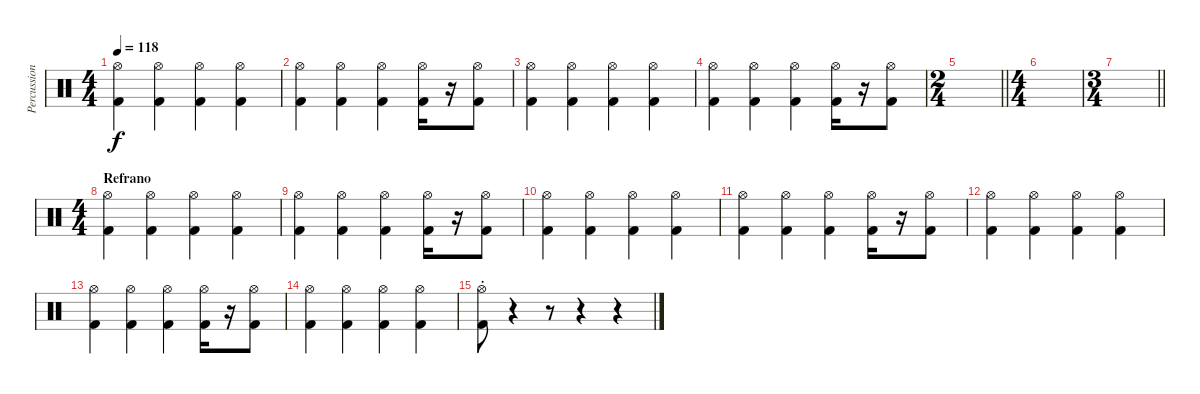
\track ("Percussion" "Percussion") {instrument percussion}
\staff {score}
\articulation defaults
\ts (4 4)
\tempo 118
\clef neutral
\ks c
("Hi-Hat (open)" "Kick (hit) 2").4{dy f} ("Hi-Hat (open)" "Kick (hit) 2").4 ("Hi-Hat (open)" "Kick (hit) 2").4 ("Hi-Hat (open)" "Kick (hit) 2").4 |
("Hi-Hat (open)" "Kick (hit) 2").4 ("Hi-Hat (open)" "Kick (hit) 2").4 ("Hi-Hat (open)" "Kick (hit) 2").4 ("Hi-Hat (open)" "Kick (hit) 2").16 r.16 ("Hi-Hat (open)" "Kick (hit) 2").8 |
("Hi-Hat (open)" "Kick (hit) 2").4 ("Hi-Hat (open)" "Kick (hit) 2").4 ("Hi-Hat (open)" "Kick (hit) 2").4 ("Hi-Hat (open)" "Kick (hit) 2").4 |
("Hi-Hat (open)" "Kick (hit) 2").4 ("Hi-Hat (open)" "Kick (hit) 2").4 ("Hi-Hat (open)" "Kick (hit) 2").4 ("Hi-Hat (open)" "Kick (hit) 2").16 r.16 ("Hi-Hat (open)" "Kick (hit) 2").8 |
\ts (2 4)
\barLineRight lightlight
|
\ts (4 4)
|
\ts (3 4)
\barLineRight lightlight
|
\ts (4 4)
\section ("" "Refrano")
("Hi-Hat (open)" "Kick (hit) 2").4 ("Hi-Hat (open)" "Kick (hit) 2").4 ("Hi-Hat (open)" "Kick (hit) 2").4 ("Hi-Hat (open)" "Kick (hit) 2").4 |
("Hi-Hat (open)" "Kick (hit) 2").4 ("Hi-Hat (open)" "Kick (hit) 2").4 ("Hi-Hat (open)" "Kick (hit) 2").4 ("Hi-Hat (open)" "Kick (hit) 2").16 r.16 ("Hi-Hat (open)" "Kick (hit) 2").8 |
("Hi-Hat (open)" "Kick (hit) 2").4 ("Hi-Hat (open)" "Kick (hit) 2").4 ("Hi-Hat (open)" "Kick (hit) 2").4 ("Hi-Hat (open)" "Kick (hit) 2").4 |
("Hi-Hat (open)" "Kick (hit) 2").4 ("Hi-Hat (open)" "Kick (hit) 2").4 ("Hi-Hat (open)" "Kick (hit) 2").4 ("Hi-Hat (open)" "Kick (hit) 2").16 r.16 ("Hi-Hat (open)" "Kick (hit) 2").8 |
("Hi-Hat (open)" "Kick (hit) 2").4 ("Hi-Hat (open)" "Kick (hit) 2").4 ("Hi-Hat (open)" "Kick (hit) 2").4 ("Hi-Hat (open)" "Kick (hit) 2").4 |
("Hi-Hat (open)" "Kick (hit) 2").4 ("Hi-Hat (open)" "Kick (hit) 2").4 ("Hi-Hat (open)" "Kick (hit) 2").4 ("Hi-Hat (open)" "Kick (hit) 2").16 r.16 ("Hi-Hat (open)" "Kick (hit) 2").8 |
("Hi-Hat (open)" "Kick (hit) 2").4 ("Hi-Hat (open)" "Kick (hit) 2").4 ("Hi-Hat (open)" "Kick (hit) 2").4 ("Hi-Hat (open)" "Kick (hit) 2").4 |
("Hi-Hat (open)"{st} "Kick (hit) 2"{st}).8 r.4 r.8 r.4 r.4
